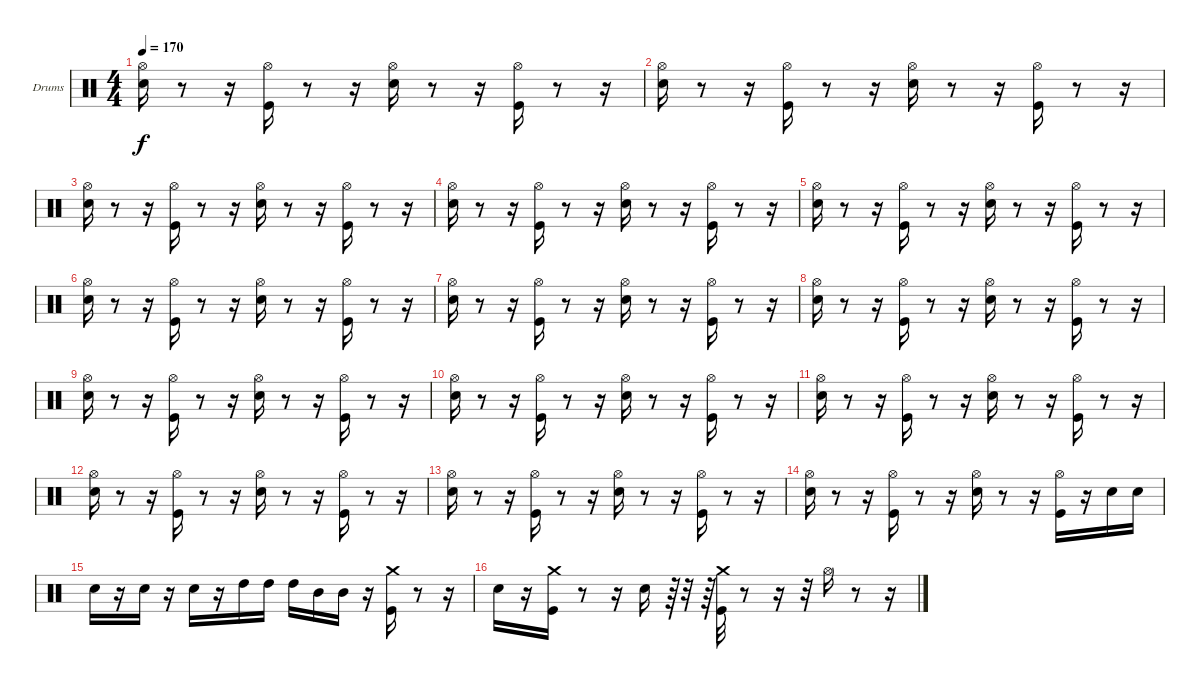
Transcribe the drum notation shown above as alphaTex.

\bracketExtendMode groupsimilarinstruments
\firstSystemTrackNameOrientation horizontal
\otherSystemsTrackNameOrientation horizontal
\track ("Thomas" "Drums") {instrument percussion}
\staff {score}
\articulation defaults
\ts (4 4)
\tempo 170
\clef neutral
\ks c
("Hi-Hat (open)" "Snare (hit) 2").16{dy f} r.8 r.16 ("Kick (hit)" "Hi-Hat (open)").16 r.8 r.16 ("Snare (hit) 2" "Hi-Hat (open)").16 r.8 r.16 ("Kick (hit)" "Hi-Hat (open)").16 r.8 r.16 |
("Snare (hit) 2" "Hi-Hat (open)").16 r.8 r.16 ("Kick (hit)" "Hi-Hat (open)").16 r.8 r.16 ("Snare (hit) 2" "Hi-Hat (open)").16 r.8 r.16 ("Kick (hit)" "Hi-Hat (open)").16 r.8 r.16 |
("Snare (hit) 2" "Hi-Hat (open)").16 r.8 r.16 ("Kick (hit)" "Hi-Hat (open)").16 r.8 r.16 ("Snare (hit) 2" "Hi-Hat (open)").16 r.8 r.16 ("Kick (hit)" "Hi-Hat (open)").16 r.8 r.16 |
("Snare (hit) 2" "Hi-Hat (open)").16 r.8 r.16 ("Kick (hit)" "Hi-Hat (open)").16 r.8 r.16 ("Snare (hit) 2" "Hi-Hat (open)").16 r.8 r.16 ("Kick (hit)" "Hi-Hat (open)").16 r.8 r.16 |
("Snare (hit) 2" "Hi-Hat (open)").16 r.8 r.16 ("Kick (hit)" "Hi-Hat (open)").16 r.8 r.16 ("Snare (hit) 2" "Hi-Hat (open)").16 r.8 r.16 ("Kick (hit)" "Hi-Hat (open)").16 r.8 r.16 |
("Snare (hit) 2" "Hi-Hat (open)").16 r.8 r.16 ("Kick (hit)" "Hi-Hat (open)").16 r.8 r.16 ("Snare (hit) 2" "Hi-Hat (open)").16 r.8 r.16 ("Kick (hit)" "Hi-Hat (open)").16 r.8 r.16 |
("Snare (hit) 2" "Hi-Hat (open)").16 r.8 r.16 ("Kick (hit)" "Hi-Hat (open)").16 r.8 r.16 ("Snare (hit) 2" "Hi-Hat (open)").16 r.8 r.16 ("Kick (hit)" "Hi-Hat (open)").16 r.8 r.16 |
("Snare (hit) 2" "Hi-Hat (open)").16 r.8 r.16 ("Kick (hit)" "Hi-Hat (open)").16 r.8 r.16 ("Snare (hit) 2" "Hi-Hat (open)").16 r.8 r.16 ("Kick (hit)" "Hi-Hat (open)").16 r.8 r.16 |
("Snare (hit) 2" "Hi-Hat (open)").16 r.8 r.16 ("Kick (hit)" "Hi-Hat (open)").16 r.8 r.16 ("Snare (hit) 2" "Hi-Hat (open)").16 r.8 r.16 ("Kick (hit)" "Hi-Hat (open)").16 r.8 r.16 |
("Snare (hit) 2" "Hi-Hat (open)").16 r.8 r.16 ("Kick (hit)" "Hi-Hat (open)").16 r.8 r.16 ("Snare (hit) 2" "Hi-Hat (open)").16 r.8 r.16 ("Kick (hit)" "Hi-Hat (open)").16 r.8 r.16 |
("Snare (hit) 2" "Hi-Hat (open)").16 r.8 r.16 ("Kick (hit)" "Hi-Hat (open)").16 r.8 r.16 ("Snare (hit) 2" "Hi-Hat (open)").16 r.8 r.16 ("Kick (hit)" "Hi-Hat (open)").16 r.8 r.16 |
("Snare (hit) 2" "Hi-Hat (open)").16 r.8 r.16 ("Kick (hit)" "Hi-Hat (open)").16 r.8 r.16 ("Snare (hit) 2" "Hi-Hat (open)").16 r.8 r.16 ("Kick (hit)" "Hi-Hat (open)").16 r.8 r.16 |
("Snare (hit) 2" "Hi-Hat (open)").16 r.8 r.16 ("Kick (hit)" "Hi-Hat (open)").16 r.8 r.16 ("Snare (hit) 2" "Hi-Hat (open)").16 r.8 r.16 ("Kick (hit)" "Hi-Hat (open)").16 r.8 r.16 |
("Snare (hit) 2" "Hi-Hat (open)").16 r.8 r.16 ("Kick (hit)" "Hi-Hat (open)").16 r.8 r.16 ("Snare (hit) 2" "Hi-Hat (open)").16 r.8 r.16 ("Kick (hit)" "Hi-Hat (open)").16 r.16 "Snare (hit) 2".16 "Snare (hit) 2".16 |
"Snare (hit) 2".16 r.16 "Snare (hit) 2".16 r.16 "Snare (hit) 2".16 r.16 "High Tom (hit)".16 "High Tom (hit)".16 "High Tom (hit)".16 "Mid Tom (hit)".16 "Mid Tom (hit)".16 r.16 ("Kick (hit)" "Crash medium (hit)").16 r.8 r.16 |
"Snare (hit) 2".16 r.16 ("Kick (hit)" "Crash medium (hit)").16 r.8 r.16 "Snare (hit) 2".16 r.64 r.32 r.64 ("Kick (hit)" "Crash medium (hit)").32 r.8 r.16 r.32 "Hi-Hat (open)".16 r.8 r.16
